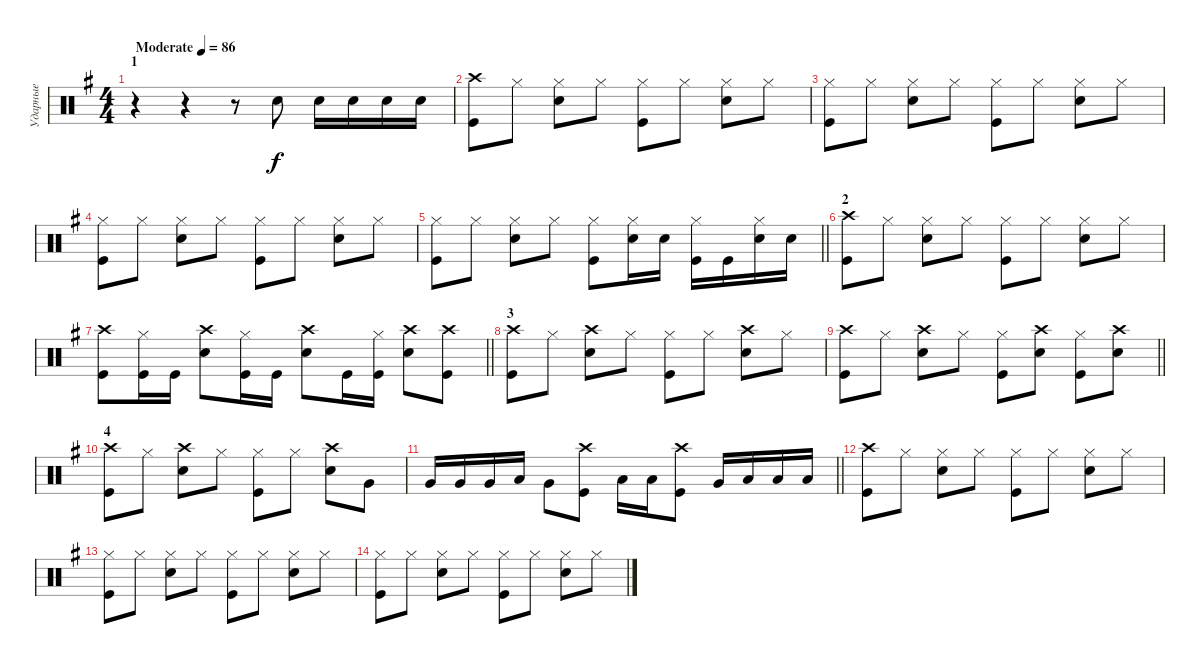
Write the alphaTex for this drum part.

\track ("Ударные" "Ударные") {instrument percussion}
\staff {score}
\articulation defaults
\ts (4 4)
\section ("" "1")
\tempo (86 "Moderate")
\clef neutral
\ks g
r.4{dy f} r.4 r.8 "Snare (hit) 2".8 "Snare (hit) 2".16 "Snare (hit) 2".16 "Snare (hit) 2".16 "Snare (hit) 2".16 |
("Crash high (hit)" "Kick (hit)").8 "Hi-Hat (closed)".8 ("Hi-Hat (closed)" "Snare (hit) 2").8 "Hi-Hat (closed)".8 ("Hi-Hat (closed)" "Kick (hit)").8 "Hi-Hat (closed)".8 ("Hi-Hat (closed)" "Snare (hit) 2").8 "Hi-Hat (closed)".8 |
("Hi-Hat (closed)" "Kick (hit)").8 "Hi-Hat (closed)".8 ("Hi-Hat (closed)" "Snare (hit) 2").8 "Hi-Hat (closed)".8 ("Hi-Hat (closed)" "Kick (hit)").8 "Hi-Hat (closed)".8 ("Hi-Hat (closed)" "Snare (hit) 2").8 "Hi-Hat (closed)".8 |
("Hi-Hat (closed)" "Kick (hit)").8 "Hi-Hat (closed)".8 ("Hi-Hat (closed)" "Snare (hit) 2").8 "Hi-Hat (closed)".8 ("Hi-Hat (closed)" "Kick (hit)").8 "Hi-Hat (closed)".8 ("Hi-Hat (closed)" "Snare (hit) 2").8 "Hi-Hat (closed)".8 |
\barLineRight lightlight
("Hi-Hat (closed)" "Kick (hit)").8 "Hi-Hat (closed)".8 ("Hi-Hat (closed)" "Snare (hit) 2").8 "Hi-Hat (closed)".8 ("Hi-Hat (closed)" "Kick (hit)").8 ("Hi-Hat (closed)" "Snare (hit) 2").16 "Snare (hit) 2".16 ("Hi-Hat (closed)" "Kick (hit)").16 "Kick (hit)".16 ("Hi-Hat (closed)" "Snare (hit) 2").16 "Snare (hit) 2".16 |
\section ("" "2")
("Crash high (hit)" "Kick (hit)").8 "Hi-Hat (closed)".8 ("Hi-Hat (closed)" "Snare (hit) 2").8 "Hi-Hat (closed)".8 ("Hi-Hat (closed)" "Kick (hit)").8 "Hi-Hat (closed)".8 ("Hi-Hat (closed)" "Snare (hit) 2").8 "Hi-Hat (closed)".8 |
\barLineRight lightlight
("Crash high (hit)" "Kick (hit)").8 ("Hi-Hat (closed)" "Kick (hit)").16 "Kick (hit)".16 ("Crash high (hit)" "Snare (hit) 2").8 ("Hi-Hat (closed)" "Kick (hit)").16 "Kick (hit)".16 ("Crash high (hit)" "Snare (hit) 2").8 "Kick (hit)".16 ("Hi-Hat (closed)" "Kick (hit)").16 ("Crash high (hit)" "Snare (hit) 2").8 ("Crash high (hit)" "Kick (hit)").8 |
\section ("" "3")
("Crash high (hit)" "Kick (hit)").8 "Hi-Hat (closed)".8 ("Crash high (hit)" "Snare (hit) 2").8 "Hi-Hat (closed)".8 ("Hi-Hat (closed)" "Kick (hit)").8 "Hi-Hat (closed)".8 ("Crash high (hit)" "Snare (hit) 2").8 "Hi-Hat (closed)".8 |
\barLineRight lightlight
("Crash high (hit)" "Kick (hit)").8 "Hi-Hat (closed)".8 ("Crash high (hit)" "Snare (hit) 2").8 "Hi-Hat (closed)".8 ("Hi-Hat (closed)" "Kick (hit)").8 ("Crash high (hit)" "Snare (hit) 2").8 ("Hi-Hat (closed)" "Kick (hit)").8 ("Crash high (hit)" "Snare (hit) 2").8 |
\section ("" "4")
("Crash high (hit)" "Kick (hit)").8 "Hi-Hat (closed)".8 ("Crash high (hit)" "Snare (hit) 2").8 "Hi-Hat (closed)".8 ("Hi-Hat (closed)" "Kick (hit)").8 "Hi-Hat (closed)".8 ("Crash high (hit)" "Snare (hit) 2").8 "Very Low Tom (hit)".8 |
\barLineRight lightlight "Very Low Tom (hit)".16 "Very Low Tom (hit)".16 "Very Low Tom (hit)".16 "Low Tom (hit)".16 "Very Low Tom (hit)".8
("Crash high (hit)" "Kick (hit)").8 "Low Tom (hit)".16 "Low Tom (hit)".16 ("Crash high (hit)" "Kick (hit)").8 "Very Low Tom (hit)".16 "Low Tom (hit)".16 "Low Tom (hit)".16 "Low Tom (hit)".16 |
("Crash high (hit)" "Kick (hit)").8{volume 0} "Hi-Hat (closed)".8 ("Hi-Hat (closed)" "Snare (hit) 2").8 "Hi-Hat (closed)".8 ("Hi-Hat (closed)" "Kick (hit)").8 "Hi-Hat (closed)".8 ("Hi-Hat (closed)" "Snare (hit) 2").8 "Hi-Hat (closed)".8 |
("Hi-Hat (closed)" "Kick (hit)").8 "Hi-Hat (closed)".8 ("Hi-Hat (closed)" "Snare (hit) 2").8 "Hi-Hat (closed)".8 ("Hi-Hat (closed)" "Kick (hit)").8 "Hi-Hat (closed)".8 ("Hi-Hat (closed)" "Snare (hit) 2").8 "Hi-Hat (closed)".8 |
("Hi-Hat (closed)" "Kick (hit)").8 "Hi-Hat (closed)".8 ("Hi-Hat (closed)" "Snare (hit) 2").8 "Hi-Hat (closed)".8 ("Hi-Hat (closed)" "Kick (hit)").8 "Hi-Hat (closed)".8 ("Hi-Hat (closed)" "Snare (hit) 2").8 "Hi-Hat (closed)".8
